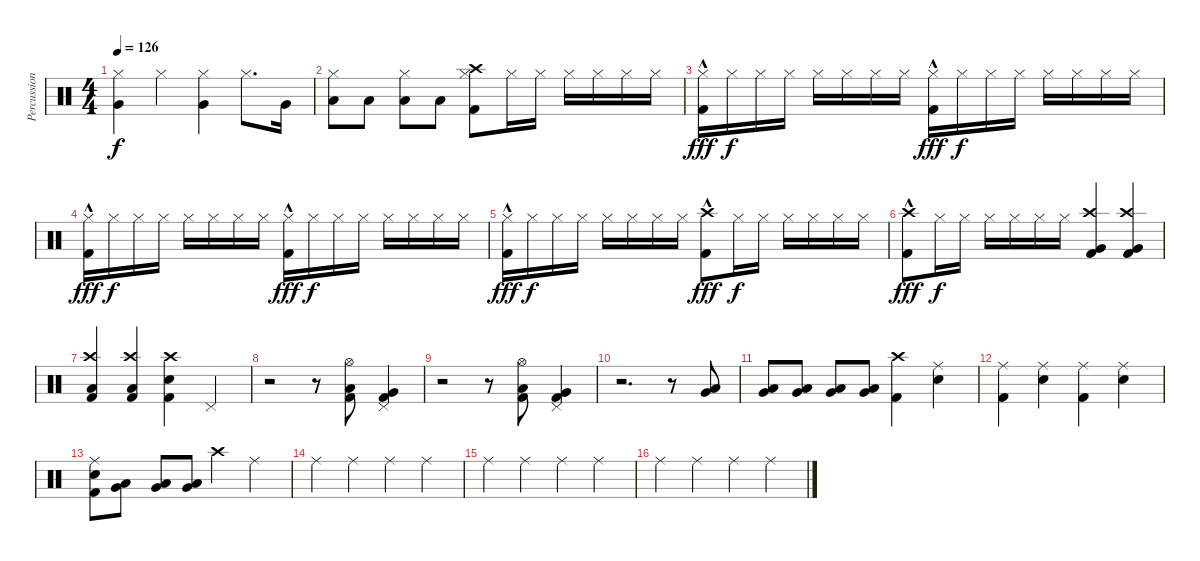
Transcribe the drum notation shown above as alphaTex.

\track ("Percussion" "Percussion") {instrument percussion}
\staff {score}
\articulation defaults
\ts (4 4)
\tempo 126
\clef neutral
\ks c
("Hi-Hat (closed)" "Very Low Tom (hit)").4{dy f} "Hi-Hat (closed)".4 ("Hi-Hat (closed)" "Very Low Tom (hit)").4 "Hi-Hat (closed)".8{d} "Very Low Tom (hit)".16 |
("Hi-Hat (closed)" "Low Floor Tom (hit)").8 "Low Floor Tom (hit)".8 ("Hi-Hat (closed)" "Low Floor Tom (hit)").8 "Low Floor Tom (hit)".8 ("Hi-Hat (closed)" "Crash high (hit)" "Kick (hit) 2").8 "Hi-Hat (closed)".16 "Hi-Hat (closed)".16 "Hi-Hat (closed)".16 "Hi-Hat (closed)".16 "Hi-Hat (closed)".16 "Hi-Hat (closed)".16 |
("Hi-Hat (closed)"{hac} "Kick (hit) 2").16{dy fff} "Hi-Hat (closed)".16{dy f} "Hi-Hat (closed)".16 "Hi-Hat (closed)".16 "Hi-Hat (closed)".16 "Hi-Hat (closed)".16 "Hi-Hat (closed)".16 "Hi-Hat (closed)".16 ("Hi-Hat (closed)"{hac} "Kick (hit) 2").16{dy fff} "Hi-Hat (closed)".16{dy f} "Hi-Hat (closed)".16 "Hi-Hat (closed)".16 "Hi-Hat (closed)".16 "Hi-Hat (closed)".16 "Hi-Hat (closed)".16 "Hi-Hat (closed)".16 |
("Hi-Hat (closed)"{hac} "Kick (hit) 2").16{dy fff} "Hi-Hat (closed)".16{dy f} "Hi-Hat (closed)".16 "Hi-Hat (closed)".16 "Hi-Hat (closed)".16 "Hi-Hat (closed)".16 "Hi-Hat (closed)".16 "Hi-Hat (closed)".16 ("Hi-Hat (closed)"{hac} "Kick (hit) 2").16{dy fff} "Hi-Hat (closed)".16{dy f} "Hi-Hat (closed)".16 "Hi-Hat (closed)".16 "Hi-Hat (closed)".16 "Hi-Hat (closed)".16 "Hi-Hat (closed)".16 "Hi-Hat (closed)".16 |
("Hi-Hat (closed)"{hac} "Kick (hit) 2").16{dy fff} "Hi-Hat (closed)".16{dy f} "Hi-Hat (closed)".16 "Hi-Hat (closed)".16 "Hi-Hat (closed)".16 "Hi-Hat (closed)".16 "Hi-Hat (closed)".16 "Hi-Hat (closed)".16 ("Crash high (hit)"{hac} "Kick (hit) 2").8{dy fff} "Hi-Hat (closed)".16{dy f} "Hi-Hat (closed)".16 "Hi-Hat (closed)".16 "Hi-Hat (closed)".16 "Hi-Hat (closed)".16 "Hi-Hat (closed)".16 |
("Crash high (hit)"{hac} "Kick (hit) 2").8{dy fff} "Hi-Hat (closed)".16{dy f} "Hi-Hat (closed)".16 "Hi-Hat (closed)".16 "Hi-Hat (closed)".16 "Hi-Hat (closed)".16 "Hi-Hat (closed)".16 ("Crash high (hit)" "Kick (hit) 2" "Very Low Tom (hit)").4 ("Crash high (hit)" "Kick (hit) 2" "Very Low Tom (hit)").4 |
("Crash high (hit)" "Kick (hit) 2" "Low Floor Tom (hit)").4 ("Crash high (hit)" "Kick (hit) 2" "Low Floor Tom (hit)").4 ("Crash high (hit)" "Kick (hit) 2" "Snare (hit) 2").4 "Pedal Hi-Hat (hit)".4 |
r.2 r.8 ("Hi-Hat (open)" "Kick (hit) 2" "Low Floor Tom (hit)").8 ("Pedal Hi-Hat (hit)" "Kick (hit) 2" "Very Low Tom (hit)").4 |
r.2 r.8 ("Hi-Hat (open)" "Kick (hit) 2" "Low Floor Tom (hit)").8 ("Pedal Hi-Hat (hit)" "Kick (hit) 2" "Very Low Tom (hit)").4 |
r.2{d} r.8 ("Very Low Tom (hit)" "Low Floor Tom (hit)").8 |
("Very Low Tom (hit)" "Low Floor Tom (hit)").8 ("Very Low Tom (hit)" "Low Floor Tom (hit)").8 ("Very Low Tom (hit)" "Low Floor Tom (hit)").8 ("Very Low Tom (hit)" "Low Floor Tom (hit)").8 ("Crash high (hit)" "Kick (hit) 2").4 ("Ride (middle)" "Snare (hit) 2").4 |
("Ride (middle)" "Kick (hit) 2").4 ("Ride (middle)" "Snare (hit) 2").4 ("Ride (middle)" "Kick (hit) 2").4 ("Ride (middle)" "Snare (hit) 2").4 |
("Ride (middle)" "Snare (hit) 2" "Kick (hit) 2").8 ("Low Floor Tom (hit)" "Very Low Tom (hit)").8 ("Low Tom (hit)" "Very Low Tom (hit)").8 ("Low Tom (hit)" "Very Low Tom (hit)").8 "Crash high (hit)".4 "Ride (middle)".4 |
"Ride (middle)".4 "Ride (middle)".4 "Ride (middle)".4 "Ride (middle)".4 |
"Ride (middle)".4 "Ride (middle)".4 "Ride (middle)".4 "Ride (middle)".4 |
"Ride (middle)".4 "Ride (middle)".4 "Ride (middle)".4 "Ride (middle)".4
